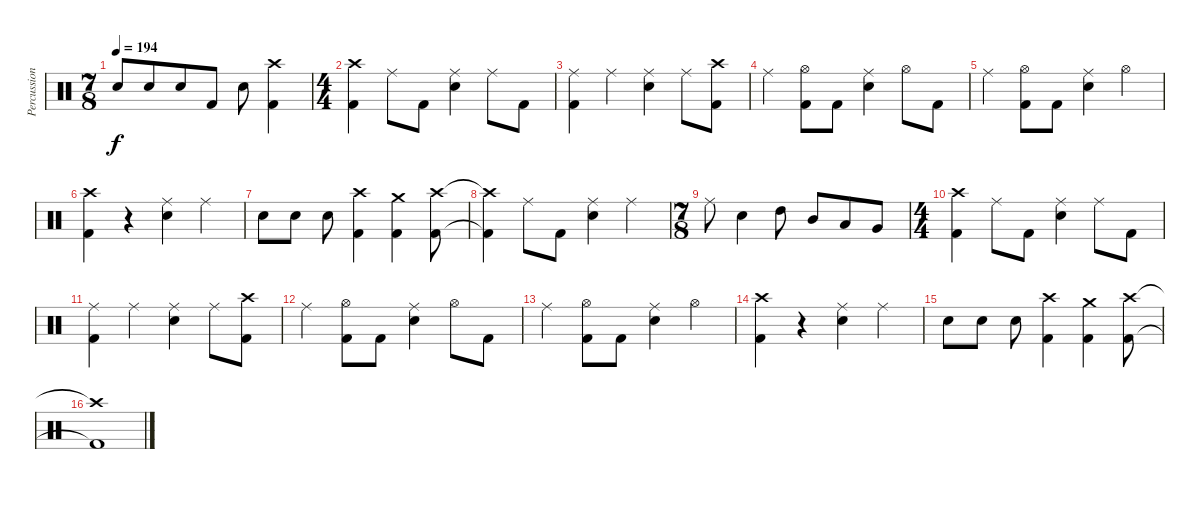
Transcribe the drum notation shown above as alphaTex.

\track ("Percussions" "Percussion") {instrument percussion}
\staff {score}
\articulation defaults
\ts (7 8)
\tempo 194
\clef neutral
\ks c "Electric Snare (hit)".8{dy f} "Electric Snare (hit)".8 "Electric Snare (hit)".8 "Kick (hit) 2".8 "Electric Snare (hit)".8
("Crash high (hit)" "Kick (hit) 2").4 |
\ts (4 4)
("Crash high (hit)" "Kick (hit) 2").4 "Ride (middle)".8 "Kick (hit) 2".8 ("Ride (middle)" "Electric Snare (hit)").4 "Ride (middle)".8 "Kick (hit) 2".8 |
("Ride (middle)" "Kick (hit) 2").4 "Ride (middle)".4 ("Ride (middle)" "Electric Snare (hit)").4 "Ride (middle)".8 ("Crash high (hit)" "Kick (hit) 2").8 |
"Ride (middle)".4 ("Hi-Hat (open)" "Kick (hit) 2").8 "Kick (hit) 2".8 ("Ride (middle)" "Electric Snare (hit)").4 "Hi-Hat (open)".8 "Kick (hit) 2".8 |
"Ride (middle)".4 ("Hi-Hat (open)" "Kick (hit) 2").8 "Kick (hit) 2".8 ("Ride (middle)" "Electric Snare (hit)").4 "Hi-Hat (open)".4 |
("Crash high (hit)" "Kick (hit) 2").4 r.4 ("Ride (middle)" "Electric Snare (hit)").4 "Ride (middle)".4 |
"Electric Snare (hit)".8 "Electric Snare (hit)".8 "Electric Snare (hit)".8 ("Crash high (hit)" "Kick (hit) 2").4 ("Crash medium (hit)" "Kick (hit) 2").4 ("Crash high (hit)" "Kick (hit) 2").8 |
("Crash high (hit)"{t} "Kick (hit) 2"{t}).4 "Ride (middle)".8 "Kick (hit) 2".8 ("Ride (middle)" "Electric Snare (hit)").4 "Ride (middle)".4 |
\ts (7 8)
"Ride (middle)".8 "Electric Snare (hit)".4 "High Tom (hit)".8 "Mid Tom (hit)".8 "Low Tom (hit)".8 "Very Low Tom (hit)".8 |
\ts (4 4)
("Crash high (hit)" "Kick (hit) 2").4 "Ride (middle)".8 "Kick (hit) 2".8 ("Ride (middle)" "Electric Snare (hit)").4 "Ride (middle)".8 "Kick (hit) 2".8 |
("Ride (middle)" "Kick (hit) 2").4 "Ride (middle)".4 ("Ride (middle)" "Electric Snare (hit)").4 "Ride (middle)".8 ("Crash high (hit)" "Kick (hit) 2").8 |
"Ride (middle)".4 ("Hi-Hat (open)" "Kick (hit) 2").8 "Kick (hit) 2".8 ("Ride (middle)" "Electric Snare (hit)").4 "Hi-Hat (open)".8 "Kick (hit) 2".8 |
"Ride (middle)".4 ("Hi-Hat (open)" "Kick (hit) 2").8 "Kick (hit) 2".8 ("Ride (middle)" "Electric Snare (hit)").4 "Hi-Hat (open)".4 |
("Crash high (hit)" "Kick (hit) 2").4 r.4 ("Ride (middle)" "Electric Snare (hit)").4 "Ride (middle)".4 |
"Electric Snare (hit)".8 "Electric Snare (hit)".8 "Electric Snare (hit)".8 ("Crash high (hit)" "Kick (hit) 2").4 ("Crash medium (hit)" "Kick (hit) 2").4 ("Crash high (hit)" "Kick (hit) 2").8 |
("Crash high (hit)"{t} "Kick (hit) 2"{t}).1
